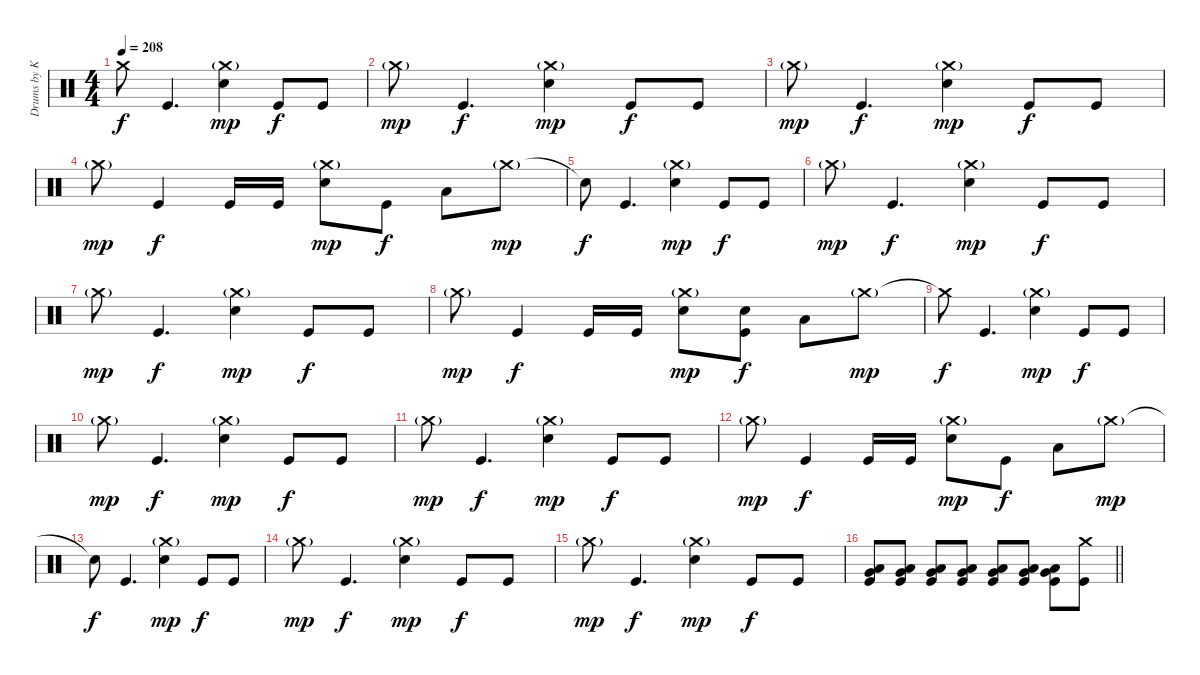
\track ("Drums by Kwonnie" "Drums by K") {instrument percussion}
\staff {score}
\articulation defaults
\ts (4 4)
\tempo 208
\clef neutral
\ks c "Crash medium (hit)".8{dy f} "Kick (hit)".4{d}
("Crash medium (hit)"{g} "Electric Snare (hit)").4{dy mp} "Kick (hit)".8{dy f} "Kick (hit)".8 |
"Crash medium (hit)"{g}.8{dy mp} "Kick (hit)".4{d dy f} ("Crash medium (hit)"{g} "Electric Snare (hit)").4{dy mp} "Kick (hit)".8{dy f} "Kick (hit)".8 |
"Crash medium (hit)"{g}.8{dy mp} "Kick (hit)".4{d dy f} ("Crash medium (hit)"{g} "Electric Snare (hit)").4{dy mp} "Kick (hit)".8{dy f} "Kick (hit)".8 |
"Crash medium (hit)"{g}.8{dy mp} "Kick (hit)".4{dy f} "Kick (hit)".16 "Kick (hit)".16 ("Crash medium (hit)"{g} "Electric Snare (hit)").8{dy mp} "Kick (hit)".8{dy f} "Low Floor Tom (hit)".8 "Crash medium (hit)"{g}.8{dy mp} |
"Snare (hit)"{t}.8{dy f} "Kick (hit)".4{d} ("Crash medium (hit)"{g} "Electric Snare (hit)").4{dy mp} "Kick (hit)".8{dy f} "Kick (hit)".8 |
"Crash medium (hit)"{g}.8{dy mp} "Kick (hit)".4{d dy f} ("Crash medium (hit)"{g} "Electric Snare (hit)").4{dy mp} "Kick (hit)".8{dy f} "Kick (hit)".8 |
"Crash medium (hit)"{g}.8{dy mp} "Kick (hit)".4{d dy f} ("Crash medium (hit)"{g} "Electric Snare (hit)").4{dy mp} "Kick (hit)".8{dy f} "Kick (hit)".8 |
"Crash medium (hit)"{g}.8{dy mp} "Kick (hit)".4{dy f} "Kick (hit)".16 "Kick (hit)".16 ("Crash medium (hit)"{g} "Electric Snare (hit)").8{dy mp} ("Electric Snare (hit)" "Kick (hit)").8{dy f} "Low Floor Tom (hit)".8 "Crash medium (hit)"{g}.8{dy mp} |
"Crash medium (hit)"{t}.8{dy f} "Kick (hit)".4{d} ("Crash medium (hit)"{g} "Electric Snare (hit)").4{dy mp} "Kick (hit)".8{dy f} "Kick (hit)".8 |
"Crash medium (hit)"{g}.8{dy mp} "Kick (hit)".4{d dy f} ("Crash medium (hit)"{g} "Electric Snare (hit)").4{dy mp} "Kick (hit)".8{dy f} "Kick (hit)".8 |
"Crash medium (hit)"{g}.8{dy mp} "Kick (hit)".4{d dy f} ("Crash medium (hit)"{g} "Electric Snare (hit)").4{dy mp} "Kick (hit)".8{dy f} "Kick (hit)".8 |
"Crash medium (hit)"{g}.8{dy mp} "Kick (hit)".4{dy f} "Kick (hit)".16 "Kick (hit)".16 ("Crash medium (hit)"{g} "Electric Snare (hit)").8{dy mp} "Kick (hit)".8{dy f} "Low Floor Tom (hit)".8 "Crash medium (hit)"{g}.8{dy mp} |
"Snare (hit)"{t}.8{dy f} "Kick (hit)".4{d} ("Crash medium (hit)"{g} "Electric Snare (hit)").4{dy mp} "Kick (hit)".8{dy f} "Kick (hit)".8 |
"Crash medium (hit)"{g}.8{dy mp} "Kick (hit)".4{d dy f} ("Crash medium (hit)"{g} "Electric Snare (hit)").4{dy mp} "Kick (hit)".8{dy f} "Kick (hit)".8 |
"Crash medium (hit)"{g}.8{dy mp} "Kick (hit)".4{d dy f} ("Crash medium (hit)"{g} "Electric Snare (hit)").4{dy mp} "Kick (hit)".8{dy f} "Kick (hit)".8 |
\barLineRight lightlight
("Low Tom (hit)" "Very Low Tom (hit)" "Kick (hit)").8 ("Low Tom (hit)" "Very Low Tom (hit)" "Kick (hit)").8 ("Low Tom (hit)" "Very Low Tom (hit)" "Kick (hit)").8 ("Low Tom (hit)" "Very Low Tom (hit)" "Kick (hit)").8 ("Low Tom (hit)" "Very Low Tom (hit)" "Kick (hit)").8 ("Low Tom (hit)" "Very Low Tom (hit)" "Kick (hit)").8 ("Low Tom (hit)" "Very Low Tom (hit)" "Kick (hit)").8 ("Crash medium (hit)" "Kick (hit)").8
